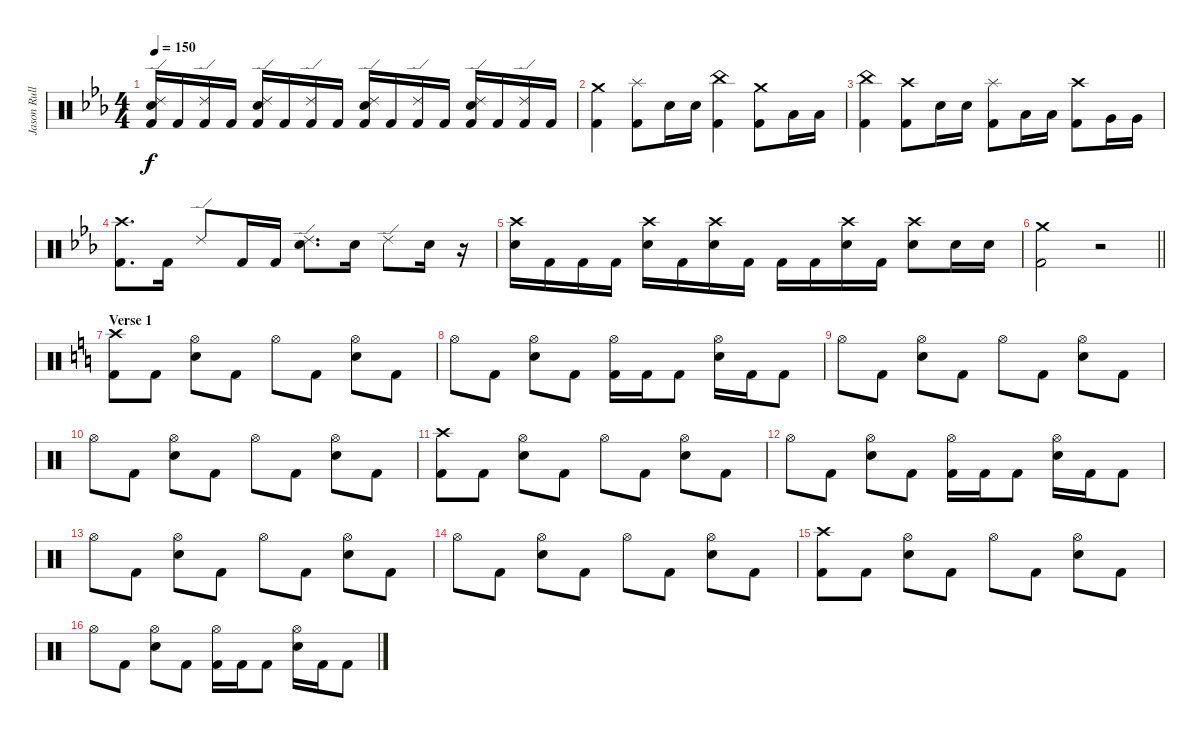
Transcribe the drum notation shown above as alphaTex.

\track ("Jason Rullo" "Jason Rull") {instrument percussion}
\staff {score}
\articulation defaults
\ts (4 4)
\tempo 150
\clef neutral
\ks cminor
("Ride (edge) 2" "Electric Snare (hit)" "Kick (hit) 2").16{dy f} "Kick (hit) 2".16 ("Ride (edge) 2" "Kick (hit) 2").16 "Kick (hit) 2".16 ("Ride (edge) 2" "Electric Snare (hit)" "Kick (hit) 2").16 "Kick (hit) 2".16 ("Ride (edge) 2" "Kick (hit) 2").16 "Kick (hit) 2".16 ("Ride (edge) 2" "Electric Snare (hit)" "Kick (hit) 2").16 "Kick (hit) 2".16 ("Ride (edge) 2" "Kick (hit) 2").16 "Kick (hit) 2".16 ("Ride (edge) 2" "Electric Snare (hit)" "Kick (hit) 2").16 "Kick (hit) 2".16 ("Ride (edge) 2" "Kick (hit) 2").16 "Kick (hit) 2".16 |
("Crash medium (hit)" "Kick (hit) 2").4 ("Splash (hit)" "Kick (hit) 2").8 "Electric Snare (hit)".16 "Electric Snare (hit)".16 ("China (hit)" "Kick (hit) 2").4 ("Crash medium (hit)" "Kick (hit) 2").8 "Low Tom (hit)".16 "Low Tom (hit)".16 |
("China (hit)" "Kick (hit) 2").4 ("Crash high (hit)" "Kick (hit) 2").8 "Electric Snare (hit)".16 "Electric Snare (hit)".16 ("Splash (hit)" "Kick (hit) 2").8 "Low Tom (hit)".16 "Low Tom (hit)".16 ("Crash high (hit)" "Kick (hit) 2").8 "Very Low Tom (hit)".16 "Very Low Tom (hit)".16 |
("Crash high (hit)" "Kick (hit) 2").8{d} "Kick (hit) 2".16 "Ride (edge) 2".8 "Kick (hit) 2".16 "Kick (hit) 2".16 ("Ride (edge) 2" "Electric Snare (hit)").8{d} "Electric Snare (hit)".16 "Ride (edge) 2".8 "Electric Snare (hit)".16 r.16 |
("Crash high (hit)" "Electric Snare (hit)").16 "Kick (hit) 2".16 "Kick (hit) 2".16 "Kick (hit) 2".16 ("Crash high (hit)" "Electric Snare (hit)").16 "Kick (hit) 2".16 ("Crash high (hit)" "Electric Snare (hit)").16 "Kick (hit) 2".16 "Kick (hit) 2".16 "Kick (hit) 2".16 ("Crash high (hit)" "Electric Snare (hit)").16 "Kick (hit) 2".16 ("Crash high (hit)" "Electric Snare (hit)").8 "Electric Snare (hit)".16 "Electric Snare (hit)".16 |
\barLineRight lightlight
("Crash medium (hit)" "Kick (hit) 2").2 r.2 |
\section ("" "Verse 1")
\ks c
("Crash high (hit)" "Kick (hit) 2").8 "Kick (hit) 2".8 ("Hi-Hat (open)" "Electric Snare (hit)").8 "Kick (hit) 2".8 "Hi-Hat (open)".8 "Kick (hit) 2".8 ("Hi-Hat (open)" "Electric Snare (hit)").8 "Kick (hit) 2".8 |
"Hi-Hat (open)".8 "Kick (hit) 2".8 ("Hi-Hat (open)" "Electric Snare (hit)").8 "Kick (hit) 2".8 ("Hi-Hat (open)" "Kick (hit) 2").16 "Kick (hit) 2".16 "Kick (hit) 2".8 ("Hi-Hat (open)" "Electric Snare (hit)").16 "Kick (hit) 2".16 "Kick (hit) 2".8 |
"Hi-Hat (open)".8 "Kick (hit) 2".8 ("Hi-Hat (open)" "Electric Snare (hit)").8 "Kick (hit) 2".8 "Hi-Hat (open)".8 "Kick (hit) 2".8 ("Hi-Hat (open)" "Electric Snare (hit)").8 "Kick (hit) 2".8 |
"Hi-Hat (open)".8 "Kick (hit) 2".8 ("Hi-Hat (open)" "Electric Snare (hit)").8 "Kick (hit) 2".8 "Hi-Hat (open)".8 "Kick (hit) 2".8 ("Hi-Hat (open)" "Electric Snare (hit)").8 "Kick (hit) 2".8 |
("Crash high (hit)" "Kick (hit) 2").8 "Kick (hit) 2".8 ("Hi-Hat (open)" "Electric Snare (hit)").8 "Kick (hit) 2".8 "Hi-Hat (open)".8 "Kick (hit) 2".8 ("Hi-Hat (open)" "Electric Snare (hit)").8 "Kick (hit) 2".8 |
"Hi-Hat (open)".8 "Kick (hit) 2".8 ("Hi-Hat (open)" "Electric Snare (hit)").8 "Kick (hit) 2".8 ("Hi-Hat (open)" "Kick (hit) 2").16 "Kick (hit) 2".16 "Kick (hit) 2".8 ("Hi-Hat (open)" "Electric Snare (hit)").16 "Kick (hit) 2".16 "Kick (hit) 2".8 |
"Hi-Hat (open)".8 "Kick (hit) 2".8 ("Hi-Hat (open)" "Electric Snare (hit)").8 "Kick (hit) 2".8 "Hi-Hat (open)".8 "Kick (hit) 2".8 ("Hi-Hat (open)" "Electric Snare (hit)").8 "Kick (hit) 2".8 |
"Hi-Hat (open)".8 "Kick (hit) 2".8 ("Hi-Hat (open)" "Electric Snare (hit)").8 "Kick (hit) 2".8 "Hi-Hat (open)".8 "Kick (hit) 2".8 ("Hi-Hat (open)" "Electric Snare (hit)").8 "Kick (hit) 2".8 |
("Crash high (hit)" "Kick (hit) 2").8 "Kick (hit) 2".8 ("Hi-Hat (open)" "Electric Snare (hit)").8 "Kick (hit) 2".8 "Hi-Hat (open)".8 "Kick (hit) 2".8 ("Hi-Hat (open)" "Electric Snare (hit)").8 "Kick (hit) 2".8 |
"Hi-Hat (open)".8 "Kick (hit) 2".8 ("Hi-Hat (open)" "Electric Snare (hit)").8 "Kick (hit) 2".8 ("Hi-Hat (open)" "Kick (hit) 2").16 "Kick (hit) 2".16 "Kick (hit) 2".8 ("Hi-Hat (open)" "Electric Snare (hit)").16 "Kick (hit) 2".16 "Kick (hit) 2".8
